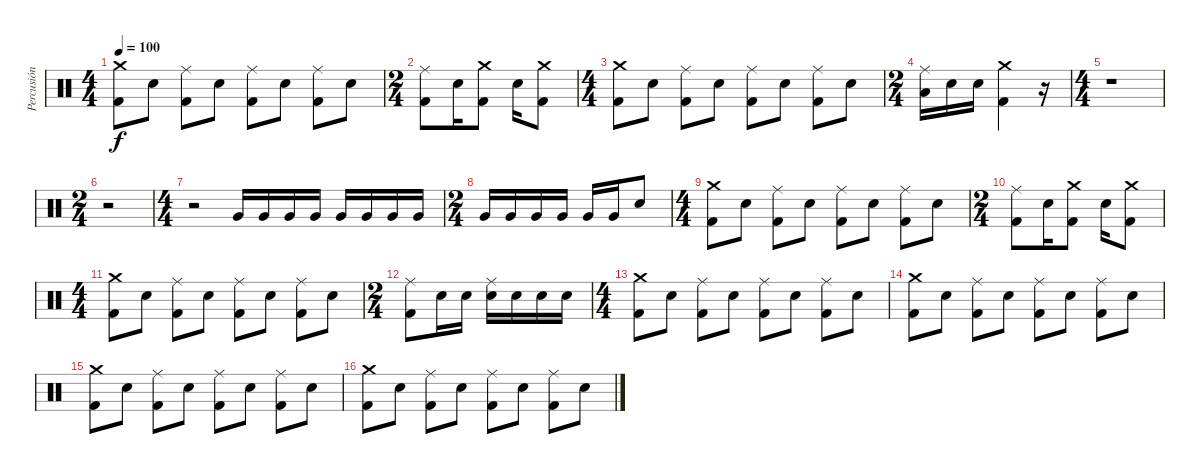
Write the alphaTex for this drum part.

\track ("Percusión" "Percusión") {instrument percussion}
\staff {score}
\articulation defaults
\ts (4 4)
\tempo 100
\clef neutral
\ks c
("Crash medium (hit)" "Kick (hit) 2").8{dy f} "Snare (hit) 2".8 ("Ride (middle)" "Kick (hit) 2").8 "Snare (hit) 2".8 ("Ride (middle)" "Kick (hit) 2").8 "Snare (hit) 2".8 ("Ride (middle)" "Kick (hit) 2").8 "Snare (hit) 2".8 |
\ts (2 4)
("Ride (middle)" "Kick (hit) 2").8 "Snare (hit) 2".16 ("Crash medium (hit)" "Kick (hit) 2").8 "Snare (hit) 2".16 ("Kick (hit) 2" "Crash medium (hit)").8 |
\ts (4 4)
("Crash medium (hit)" "Kick (hit) 2").8 "Snare (hit) 2".8 ("Ride (middle)" "Kick (hit) 2").8 "Snare (hit) 2".8 ("Ride (middle)" "Kick (hit) 2").8 "Snare (hit) 2".8 ("Ride (middle)" "Kick (hit) 2").8 "Snare (hit) 2".8 |
\ts (2 4)
("Low Tom (hit)" "Ride (middle)").16 "Snare (hit) 2".16 "Snare (hit) 2".16 ("Kick (hit) 2" "Crash medium (hit)").4 r.16 |
\ts (4 4)
r.1 |
\ts (2 4)
r.2 |
\ts (4 4)
r.2 "Very Low Tom (hit)".16 "Very Low Tom (hit)".16 "Very Low Tom (hit)".16 "Very Low Tom (hit)".16 "Very Low Tom (hit)".16 "Very Low Tom (hit)".16 "Very Low Tom (hit)".16 "Very Low Tom (hit)".16 |
\ts (2 4)
"Very Low Tom (hit)".16 "Very Low Tom (hit)".16 "Very Low Tom (hit)".16 "Very Low Tom (hit)".16 "Very Low Tom (hit)".16 "Very Low Tom (hit)".16 "Snare (hit) 2".8 |
\ts (4 4)
("Crash medium (hit)" "Kick (hit) 2").8 "Snare (hit) 2".8 ("Ride (middle)" "Kick (hit) 2").8 "Snare (hit) 2".8 ("Ride (middle)" "Kick (hit) 2").8 "Snare (hit) 2".8 ("Ride (middle)" "Kick (hit) 2").8 "Snare (hit) 2".8 |
\ts (2 4)
("Ride (middle)" "Kick (hit) 2").8 "Snare (hit) 2".16 ("Crash medium (hit)" "Kick (hit) 2").8 "Snare (hit) 2".16 ("Kick (hit) 2" "Crash medium (hit)").8 |
\ts (4 4)
("Crash medium (hit)" "Kick (hit) 2").8 "Snare (hit) 2".8 ("Ride (middle)" "Kick (hit) 2").8 "Snare (hit) 2".8 ("Ride (middle)" "Kick (hit) 2").8 "Snare (hit) 2".8 ("Ride (middle)" "Kick (hit) 2").8 "Snare (hit) 2".8 |
\ts (2 4)
("Kick (hit) 2" "Ride (middle)").8 "Snare (hit) 2".16 "Snare (hit) 2".16 ("Ride (middle)" "Snare (hit) 2").16 "Snare (hit) 2".16 "Snare (hit) 2".16 "Snare (hit) 2".16 |
\ts (4 4)
("Crash medium (hit)" "Kick (hit) 2").8 "Snare (hit) 2".8 ("Ride (middle)" "Kick (hit) 2").8 "Snare (hit) 2".8 ("Ride (middle)" "Kick (hit) 2").8 "Snare (hit) 2".8 ("Ride (middle)" "Kick (hit) 2").8 "Snare (hit) 2".8 |
("Crash medium (hit)" "Kick (hit) 2").8 "Snare (hit) 2".8 ("Ride (middle)" "Kick (hit) 2").8 "Snare (hit) 2".8 ("Ride (middle)" "Kick (hit) 2").8 "Snare (hit) 2".8 ("Ride (middle)" "Kick (hit) 2").8 "Snare (hit) 2".8 |
("Crash medium (hit)" "Kick (hit) 2").8 "Snare (hit) 2".8 ("Ride (middle)" "Kick (hit) 2").8 "Snare (hit) 2".8 ("Ride (middle)" "Kick (hit) 2").8 "Snare (hit) 2".8 ("Ride (middle)" "Kick (hit) 2").8 "Snare (hit) 2".8 |
("Crash medium (hit)" "Kick (hit) 2").8 "Snare (hit) 2".8 ("Ride (middle)" "Kick (hit) 2").8 "Snare (hit) 2".8 ("Ride (middle)" "Kick (hit) 2").8 "Snare (hit) 2".8 ("Ride (middle)" "Kick (hit) 2").8 "Snare (hit) 2".8
